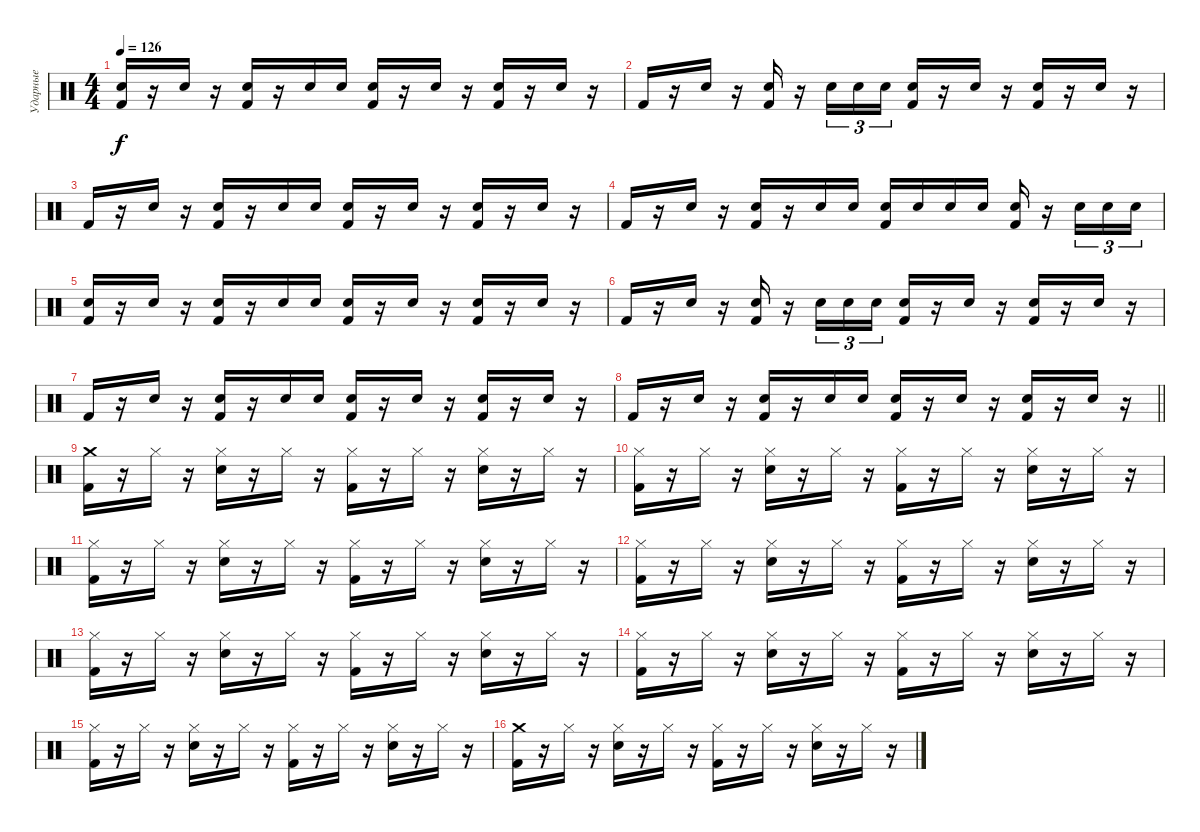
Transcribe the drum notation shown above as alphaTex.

\track ("Ударные" "Ударные") {instrument percussion}
\staff {score}
\articulation defaults
\ts (4 4)
\tempo 126
\clef neutral
\ks c
("Electric Snare (hit)" "Kick (hit) 2").16{dy f} r.16 "Electric Snare (hit)".16 r.16 ("Electric Snare (hit)" "Kick (hit) 2").16 r.16 "Electric Snare (hit)".16 "Electric Snare (hit)".16 ("Electric Snare (hit)" "Kick (hit) 2").16 r.16 "Electric Snare (hit)".16 r.16 ("Electric Snare (hit)" "Kick (hit) 2").16 r.16 "Electric Snare (hit)".16 r.16 |
"Kick (hit) 2".16 r.16 "Electric Snare (hit)".16 r.16 ("Electric Snare (hit)" "Kick (hit) 2").16 r.16 "Electric Snare (hit)".16{tu (3 2)} "Electric Snare (hit)".16{tu (3 2)} "Electric Snare (hit)".16{tu (3 2)} ("Electric Snare (hit)" "Kick (hit) 2").16 r.16 "Electric Snare (hit)".16 r.16 ("Electric Snare (hit)" "Kick (hit) 2").16 r.16 "Electric Snare (hit)".16 r.16 |
"Kick (hit) 2".16 r.16 "Electric Snare (hit)".16 r.16 ("Electric Snare (hit)" "Kick (hit) 2").16 r.16 "Electric Snare (hit)".16 "Electric Snare (hit)".16 ("Electric Snare (hit)" "Kick (hit) 2").16 r.16 "Electric Snare (hit)".16 r.16 ("Electric Snare (hit)" "Kick (hit) 2").16 r.16 "Electric Snare (hit)".16 r.16 |
"Kick (hit) 2".16 r.16 "Electric Snare (hit)".16 r.16 ("Electric Snare (hit)" "Kick (hit) 2").16 r.16 "Electric Snare (hit)".16 "Electric Snare (hit)".16 ("Electric Snare (hit)" "Kick (hit) 2").16 "Electric Snare (hit)".16 "Electric Snare (hit)".16 "Electric Snare (hit)".16 ("Electric Snare (hit)" "Kick (hit) 2").16 r.16 "Electric Snare (hit)".16{tu (3 2)} "Electric Snare (hit)".16{tu (3 2)} "Electric Snare (hit)".16{tu (3 2)} |
("Electric Snare (hit)" "Kick (hit) 2").16 r.16 "Electric Snare (hit)".16 r.16 ("Electric Snare (hit)" "Kick (hit) 2").16 r.16 "Electric Snare (hit)".16 "Electric Snare (hit)".16 ("Electric Snare (hit)" "Kick (hit) 2").16 r.16 "Electric Snare (hit)".16 r.16 ("Electric Snare (hit)" "Kick (hit) 2").16 r.16 "Electric Snare (hit)".16 r.16 |
"Kick (hit) 2".16 r.16 "Electric Snare (hit)".16 r.16 ("Electric Snare (hit)" "Kick (hit) 2").16 r.16 "Electric Snare (hit)".16{tu (3 2)} "Electric Snare (hit)".16{tu (3 2)} "Electric Snare (hit)".16{tu (3 2)} ("Electric Snare (hit)" "Kick (hit) 2").16 r.16 "Electric Snare (hit)".16 r.16 ("Electric Snare (hit)" "Kick (hit) 2").16 r.16 "Electric Snare (hit)".16 r.16 |
"Kick (hit) 2".16 r.16 "Electric Snare (hit)".16 r.16 ("Electric Snare (hit)" "Kick (hit) 2").16 r.16 "Electric Snare (hit)".16 "Electric Snare (hit)".16 ("Electric Snare (hit)" "Kick (hit) 2").16 r.16 "Electric Snare (hit)".16 r.16 ("Electric Snare (hit)" "Kick (hit) 2").16 r.16 "Electric Snare (hit)".16 r.16 |
\barLineRight lightlight "Kick (hit) 2".16
r.16 "Electric Snare (hit)".16 r.16 ("Electric Snare (hit)" "Kick (hit) 2").16 r.16 "Electric Snare (hit)".16 "Electric Snare (hit)".16 ("Electric Snare (hit)" "Kick (hit) 2").16 r.16 "Electric Snare (hit)".16 r.16 ("Electric Snare (hit)" "Kick (hit) 2").16 r.16 "Electric Snare (hit)".16 r.16 |
\section ("" "")
("Crash medium (hit)" "Kick (hit) 2").16 r.16 "Hi-Hat (closed)".16 r.16 ("Hi-Hat (closed)" "Electric Snare (hit)").16 r.16 "Hi-Hat (closed)".16 r.16 ("Hi-Hat (closed)" "Kick (hit) 2").16 r.16 "Hi-Hat (closed)".16 r.16 ("Hi-Hat (closed)" "Electric Snare (hit)").16 r.16 "Hi-Hat (closed)".16 r.16 |
("Hi-Hat (closed)" "Kick (hit) 2").16 r.16 "Hi-Hat (closed)".16 r.16 ("Hi-Hat (closed)" "Electric Snare (hit)").16 r.16 "Hi-Hat (closed)".16 r.16 ("Hi-Hat (closed)" "Kick (hit) 2").16 r.16 "Hi-Hat (closed)".16 r.16 ("Hi-Hat (closed)" "Electric Snare (hit)").16 r.16 "Hi-Hat (closed)".16 r.16 |
("Hi-Hat (closed)" "Kick (hit) 2").16 r.16 "Hi-Hat (closed)".16 r.16 ("Hi-Hat (closed)" "Electric Snare (hit)").16 r.16 "Hi-Hat (closed)".16 r.16 ("Hi-Hat (closed)" "Kick (hit) 2").16 r.16 "Hi-Hat (closed)".16 r.16 ("Hi-Hat (closed)" "Electric Snare (hit)").16 r.16 "Hi-Hat (closed)".16 r.16 |
("Hi-Hat (closed)" "Kick (hit) 2").16 r.16 "Hi-Hat (closed)".16 r.16 ("Hi-Hat (closed)" "Electric Snare (hit)").16 r.16 "Hi-Hat (closed)".16 r.16 ("Hi-Hat (closed)" "Kick (hit) 2").16 r.16 "Hi-Hat (closed)".16 r.16 ("Hi-Hat (closed)" "Electric Snare (hit)").16 r.16 "Hi-Hat (closed)".16 r.16 |
("Hi-Hat (closed)" "Kick (hit) 2").16 r.16 "Hi-Hat (closed)".16 r.16 ("Hi-Hat (closed)" "Electric Snare (hit)").16 r.16 "Hi-Hat (closed)".16 r.16 ("Hi-Hat (closed)" "Kick (hit) 2").16 r.16 "Hi-Hat (closed)".16 r.16 ("Hi-Hat (closed)" "Electric Snare (hit)").16 r.16 "Hi-Hat (closed)".16 r.16 |
("Hi-Hat (closed)" "Kick (hit) 2").16 r.16 "Hi-Hat (closed)".16 r.16 ("Hi-Hat (closed)" "Electric Snare (hit)").16 r.16 "Hi-Hat (closed)".16 r.16 ("Hi-Hat (closed)" "Kick (hit) 2").16 r.16 "Hi-Hat (closed)".16 r.16 ("Hi-Hat (closed)" "Electric Snare (hit)").16 r.16 "Hi-Hat (closed)".16 r.16 |
("Hi-Hat (closed)" "Kick (hit) 2").16 r.16 "Hi-Hat (closed)".16 r.16 ("Hi-Hat (closed)" "Electric Snare (hit)").16 r.16 "Hi-Hat (closed)".16 r.16 ("Hi-Hat (closed)" "Kick (hit) 2").16 r.16 "Hi-Hat (closed)".16 r.16 ("Hi-Hat (closed)" "Electric Snare (hit)").16 r.16 "Hi-Hat (closed)".16 r.16 |
("Crash medium (hit)" "Kick (hit) 2").16 r.16 "Hi-Hat (closed)".16 r.16 ("Hi-Hat (closed)" "Electric Snare (hit)").16 r.16 "Hi-Hat (closed)".16 r.16 ("Hi-Hat (closed)" "Kick (hit) 2").16 r.16 "Hi-Hat (closed)".16 r.16 ("Hi-Hat (closed)" "Electric Snare (hit)").16 r.16 "Hi-Hat (closed)".16 r.16
